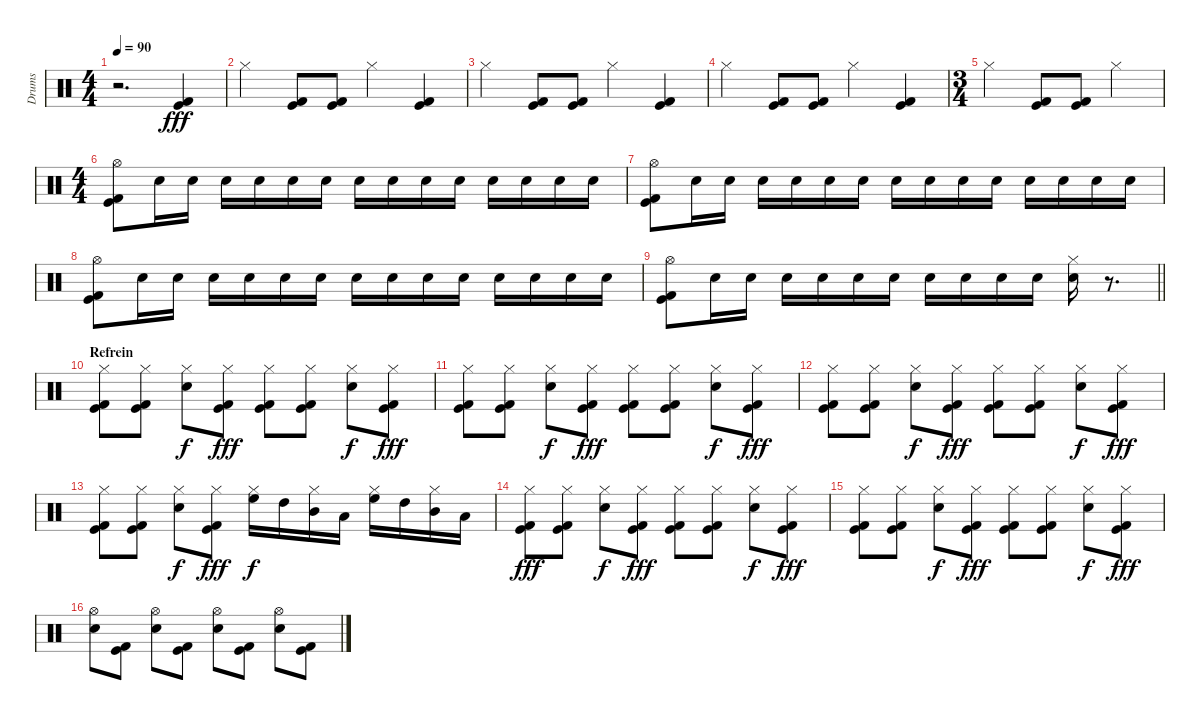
\track ("Drums" "Drums") {instrument percussion}
\staff {score}
\articulation defaults
\ts (4 4)
\tempo 90
\clef neutral
\ks c
r.2{d dy fff} ("Kick (hit) 2" "Kick (hit)").4 |
"Hi-Hat (closed)".4 ("Kick (hit) 2" "Kick (hit)").8 ("Kick (hit) 2" "Kick (hit)").8 "Hi-Hat (closed)".4 ("Kick (hit) 2" "Kick (hit)").4 |
"Hi-Hat (closed)".4 ("Kick (hit) 2" "Kick (hit)").8 ("Kick (hit) 2" "Kick (hit)").8 "Hi-Hat (closed)".4 ("Kick (hit) 2" "Kick (hit)").4 |
"Hi-Hat (closed)".4 ("Kick (hit) 2" "Kick (hit)").8 ("Kick (hit) 2" "Kick (hit)").8 "Hi-Hat (closed)".4 ("Kick (hit) 2" "Kick (hit)").4 |
\ts (3 4)
"Hi-Hat (closed)".4 ("Kick (hit) 2" "Kick (hit)").8 ("Kick (hit) 2" "Kick (hit)").8 "Hi-Hat (closed)".4 |
\ts (4 4)
("Hi-Hat (open)" "Kick (hit) 2" "Kick (hit)").8 "Electric Snare (hit)".16{volume 6} "Electric Snare (hit)".16{volume 16} "Electric Snare (hit)".16 "Electric Snare (hit)".16 "Electric Snare (hit)".16 "Electric Snare (hit)".16 "Electric Snare (hit)".16 "Electric Snare (hit)".16 "Electric Snare (hit)".16 "Electric Snare (hit)".16 "Electric Snare (hit)".16 "Electric Snare (hit)".16 "Electric Snare (hit)".16 "Electric Snare (hit)".16 |
("Hi-Hat (open)" "Kick (hit) 2" "Kick (hit)").8{volume 16} "Electric Snare (hit)".16{volume 6} "Electric Snare (hit)".16{volume 16} "Electric Snare (hit)".16 "Electric Snare (hit)".16 "Electric Snare (hit)".16 "Electric Snare (hit)".16 "Electric Snare (hit)".16 "Electric Snare (hit)".16 "Electric Snare (hit)".16 "Electric Snare (hit)".16 "Electric Snare (hit)".16 "Electric Snare (hit)".16 "Electric Snare (hit)".16 "Electric Snare (hit)".16 |
("Hi-Hat (open)" "Kick (hit) 2" "Kick (hit)").8{volume 16} "Electric Snare (hit)".16{volume 6} "Electric Snare (hit)".16{volume 16} "Electric Snare (hit)".16 "Electric Snare (hit)".16 "Electric Snare (hit)".16 "Electric Snare (hit)".16 "Electric Snare (hit)".16 "Electric Snare (hit)".16 "Electric Snare (hit)".16 "Electric Snare (hit)".16 "Electric Snare (hit)".16 "Electric Snare (hit)".16 "Electric Snare (hit)".16 "Electric Snare (hit)".16 |
\barLineRight lightlight
("Hi-Hat (open)" "Kick (hit) 2" "Kick (hit)").8{volume 16} "Electric Snare (hit)".16{volume 6} "Electric Snare (hit)".16{volume 16} "Electric Snare (hit)".16 "Electric Snare (hit)".16 "Electric Snare (hit)".16 "Electric Snare (hit)".16 "Electric Snare (hit)".16 "Electric Snare (hit)".16 "Electric Snare (hit)".16 "Electric Snare (hit)".16 ("Hi-Hat (closed)" "Electric Snare (hit)").16{volume 16} r.8{d} |
\section ("" "Refrein")
("Hi-Hat (closed)" "Kick (hit) 2" "Kick (hit)").8 ("Hi-Hat (closed)" "Kick (hit) 2" "Kick (hit)").8 ("Hi-Hat (closed)" "Snare (hit) 2").8{dy f} ("Hi-Hat (closed)" "Kick (hit) 2" "Kick (hit)").8{dy fff} ("Hi-Hat (closed)" "Kick (hit) 2" "Kick (hit)").8 ("Hi-Hat (closed)" "Kick (hit) 2" "Kick (hit)").8 ("Hi-Hat (closed)" "Snare (hit) 2").8{dy f} ("Hi-Hat (closed)" "Kick (hit) 2" "Kick (hit)").8{dy fff} |
("Hi-Hat (closed)" "Kick (hit) 2" "Kick (hit)").8 ("Hi-Hat (closed)" "Kick (hit) 2" "Kick (hit)").8 ("Hi-Hat (closed)" "Snare (hit) 2").8{dy f} ("Hi-Hat (closed)" "Kick (hit) 2" "Kick (hit)").8{dy fff} ("Hi-Hat (closed)" "Kick (hit) 2" "Kick (hit)").8 ("Hi-Hat (closed)" "Kick (hit) 2" "Kick (hit)").8 ("Hi-Hat (closed)" "Snare (hit) 2").8{dy f} ("Hi-Hat (closed)" "Kick (hit) 2" "Kick (hit)").8{dy fff} |
("Hi-Hat (closed)" "Kick (hit) 2" "Kick (hit)").8 ("Hi-Hat (closed)" "Kick (hit) 2" "Kick (hit)").8 ("Hi-Hat (closed)" "Snare (hit) 2").8{dy f} ("Hi-Hat (closed)" "Kick (hit) 2" "Kick (hit)").8{dy fff} ("Hi-Hat (closed)" "Kick (hit) 2" "Kick (hit)").8 ("Hi-Hat (closed)" "Kick (hit) 2" "Kick (hit)").8 ("Hi-Hat (closed)" "Snare (hit) 2").8{dy f} ("Hi-Hat (closed)" "Kick (hit) 2" "Kick (hit)").8{dy fff} |
("Hi-Hat (closed)" "Kick (hit) 2" "Kick (hit)").8 ("Hi-Hat (closed)" "Kick (hit) 2" "Kick (hit)").8 ("Hi-Hat (closed)" "Snare (hit) 2").8{dy f} ("Hi-Hat (closed)" "Kick (hit) 2" "Kick (hit)").8{dy fff} ("Hi-Hat (closed)" "High Floor Tom (hit)").16{dy f} "High Tom (hit)".16 ("Hi-Hat (closed)" "Mid Tom (hit)").16 "Low Tom (hit)".16 ("Hi-Hat (closed)" "High Floor Tom (hit)").16 "High Tom (hit)".16 ("Hi-Hat (closed)" "Mid Tom (hit)").16 "Low Tom (hit)".16 |
("Hi-Hat (closed)" "Kick (hit) 2" "Kick (hit)").8{dy fff} ("Hi-Hat (closed)" "Kick (hit) 2" "Kick (hit)").8 ("Hi-Hat (closed)" "Snare (hit) 2").8{dy f} ("Hi-Hat (closed)" "Kick (hit) 2" "Kick (hit)").8{dy fff} ("Hi-Hat (closed)" "Kick (hit) 2" "Kick (hit)").8 ("Hi-Hat (closed)" "Kick (hit) 2" "Kick (hit)").8 ("Hi-Hat (closed)" "Snare (hit) 2").8{dy f} ("Hi-Hat (closed)" "Kick (hit) 2" "Kick (hit)").8{dy fff} |
("Hi-Hat (closed)" "Kick (hit) 2" "Kick (hit)").8 ("Hi-Hat (closed)" "Kick (hit) 2" "Kick (hit)").8 ("Hi-Hat (closed)" "Snare (hit) 2").8{dy f} ("Hi-Hat (closed)" "Kick (hit) 2" "Kick (hit)").8{dy fff} ("Hi-Hat (closed)" "Kick (hit) 2" "Kick (hit)").8 ("Hi-Hat (closed)" "Kick (hit) 2" "Kick (hit)").8 ("Hi-Hat (closed)" "Snare (hit) 2").8{dy f} ("Hi-Hat (closed)" "Kick (hit) 2" "Kick (hit)").8{dy fff} |
("Hi-Hat (open)" "Snare (hit) 2").8 ("Kick (hit) 2" "Kick (hit)").8 ("Hi-Hat (open)" "Snare (hit) 2").8 ("Kick (hit) 2" "Kick (hit)").8 ("Hi-Hat (open)" "Snare (hit) 2").8 ("Kick (hit) 2" "Kick (hit)").8 ("Hi-Hat (open)" "Snare (hit) 2").8 ("Kick (hit) 2" "Kick (hit)").8
